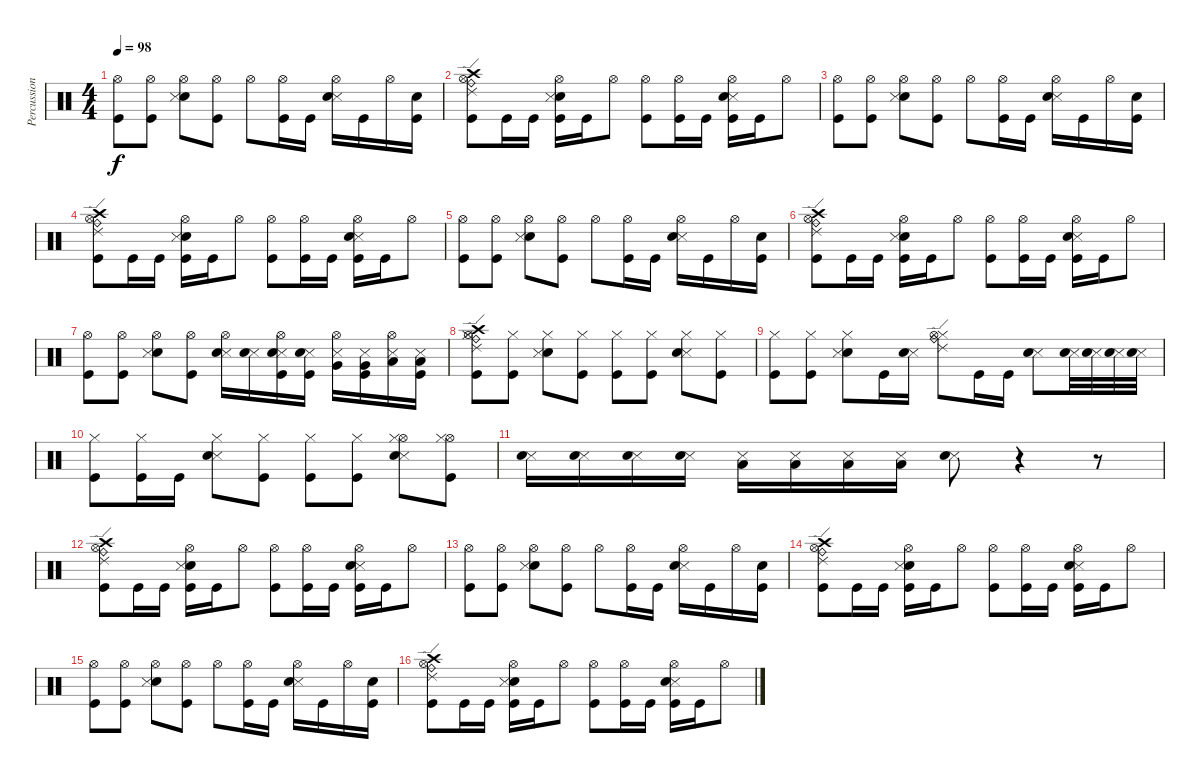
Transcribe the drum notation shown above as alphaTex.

\track ("Percussion" "Percussion") {instrument percussion}
\staff {score}
\articulation defaults
\ts (4 4)
\tempo 98
\clef neutral
\ks c
("Kick (hit)" "Hi-Hat (open)").8{dy f} ("Kick (hit)" "Hi-Hat (open)").8 ("Electric Snare (hit)" "Snare (side stick) 3" "Hi-Hat (open)").8 ("Kick (hit)" "Hi-Hat (open)").8 "Hi-Hat (open)".8 ("Kick (hit)" "Hi-Hat (open)").16 "Kick (hit)".16 ("Snare (side stick) 3" "Electric Snare (hit)" "Hi-Hat (open)").16 "Kick (hit)".16 "Hi-Hat (open)".16 ("Kick (hit)" "Electric Snare (hit)").16 |
("Crash high (hit)" "Ride (edge) 2" "Kick (hit)" "Hi-Hat (open)" "Ride (bell)").8 "Kick (hit)".16 "Kick (hit)".16 ("Electric Snare (hit)" "Snare (side stick) 3" "Kick (hit)" "Hi-Hat (open)").16 "Kick (hit)".16 "Hi-Hat (open)".8 ("Kick (hit)" "Hi-Hat (open)").8 ("Kick (hit)" "Hi-Hat (open)").16 "Kick (hit)".16 ("Snare (side stick) 3" "Electric Snare (hit)" "Kick (hit)" "Hi-Hat (open)").16 "Kick (hit)".16 "Hi-Hat (open)".8 |
("Kick (hit)" "Hi-Hat (open)").8 ("Kick (hit)" "Hi-Hat (open)").8 ("Electric Snare (hit)" "Snare (side stick) 3" "Hi-Hat (open)").8 ("Kick (hit)" "Hi-Hat (open)").8 "Hi-Hat (open)".8 ("Kick (hit)" "Hi-Hat (open)").16 "Kick (hit)".16 ("Snare (side stick) 3" "Electric Snare (hit)" "Hi-Hat (open)").16 "Kick (hit)".16 "Hi-Hat (open)".16 ("Kick (hit)" "Electric Snare (hit)").16 |
("Crash high (hit)" "Ride (edge) 2" "Kick (hit)" "Hi-Hat (open)" "Ride (bell)").8 "Kick (hit)".16 "Kick (hit)".16 ("Electric Snare (hit)" "Snare (side stick) 3" "Kick (hit)" "Hi-Hat (open)").16 "Kick (hit)".16 "Hi-Hat (open)".8 ("Kick (hit)" "Hi-Hat (open)").8 ("Kick (hit)" "Hi-Hat (open)").16 "Kick (hit)".16 ("Snare (side stick) 3" "Electric Snare (hit)" "Kick (hit)" "Hi-Hat (open)").16 "Kick (hit)".16 "Hi-Hat (open)".8 |
("Kick (hit)" "Hi-Hat (open)").8 ("Kick (hit)" "Hi-Hat (open)").8 ("Electric Snare (hit)" "Snare (side stick) 3" "Hi-Hat (open)").8 ("Kick (hit)" "Hi-Hat (open)").8 "Hi-Hat (open)".8 ("Kick (hit)" "Hi-Hat (open)").16 "Kick (hit)".16 ("Snare (side stick) 3" "Electric Snare (hit)" "Hi-Hat (open)").16 "Kick (hit)".16 "Hi-Hat (open)".16 ("Kick (hit)" "Electric Snare (hit)").16 |
("Crash high (hit)" "Ride (edge) 2" "Kick (hit)" "Hi-Hat (open)" "Ride (bell)").8 "Kick (hit)".16 "Kick (hit)".16 ("Electric Snare (hit)" "Snare (side stick) 3" "Kick (hit)" "Hi-Hat (open)").16 "Kick (hit)".16 "Hi-Hat (open)".8 ("Kick (hit)" "Hi-Hat (open)").8 ("Kick (hit)" "Hi-Hat (open)").16 "Kick (hit)".16 ("Snare (side stick) 3" "Electric Snare (hit)" "Kick (hit)" "Hi-Hat (open)").16 "Kick (hit)".16 "Hi-Hat (open)".8 |
("Kick (hit)" "Hi-Hat (open)").8 ("Kick (hit)" "Hi-Hat (open)").8 ("Electric Snare (hit)" "Snare (side stick) 3" "Hi-Hat (open)").8 ("Kick (hit)" "Hi-Hat (open)").8 ("Hi-Hat (open)" "Snare (side stick) 3" "Electric Snare (hit)").16 ("Snare (side stick) 3" "Electric Snare (hit)").16 ("Snare (side stick) 3" "Electric Snare (hit)" "Kick (hit)" "Hi-Hat (open)").16 ("Snare (side stick) 3" "Electric Snare (hit)" "Kick (hit)").16 ("Very Low Tom (hit)" "Snare (side stick) 3" "Hi-Hat (open)").16 ("Very Low Tom (hit)" "Snare (side stick) 3" "Kick (hit)").16 ("Low Floor Tom (hit)" "Snare (side stick) 3" "Hi-Hat (open)").16 ("Low Floor Tom (hit)" "Snare (side stick) 3" "Kick (hit)").16 |
("Kick (hit)" "Hi-Hat (closed)" "Hi-Hat (open)" "Crash high (hit)" "Ride (bell)" "Ride (edge) 2").8 ("Hi-Hat (closed)" "Kick (hit)").8 ("Hi-Hat (closed)" "Electric Snare (hit)" "Snare (side stick) 3").8 ("Hi-Hat (closed)" "Kick (hit)").8 ("Hi-Hat (closed)" "Kick (hit)").8 ("Kick (hit)" "Hi-Hat (closed)").8 ("Hi-Hat (closed)" "Snare (side stick) 3" "Electric Snare (hit)").8 ("Hi-Hat (closed)" "Kick (hit)").8 |
("Hi-Hat (closed)" "Kick (hit)").8 ("Hi-Hat (closed)" "Kick (hit)").8 ("Hi-Hat (closed)" "Electric Snare (hit)" "Snare (side stick) 3").8 "Kick (hit)".16 ("Snare (side stick) 3" "Electric Snare (hit)").16 ("Hi-Hat (closed)" "Hi-Hat (open)" "Ride (bell)" "Ride (edge) 2").8 "Kick (hit)".16 "Kick (hit)".16 ("Snare (side stick) 3" "Electric Snare (hit)").8 ("Snare (side stick) 3" "Electric Snare (hit)").32 ("Snare (side stick) 3" "Electric Snare (hit)").32 ("Snare (side stick) 3" "Electric Snare (hit)").32 ("Snare (side stick) 3" "Electric Snare (hit)").32 |
("Kick (hit)" "Hi-Hat (closed)").8 ("Kick (hit)" "Hi-Hat (closed)").16 "Kick (hit)".16 ("Snare (side stick) 3" "Electric Snare (hit)" "Hi-Hat (closed)").8 ("Kick (hit)" "Hi-Hat (closed)").8 ("Kick (hit)" "Hi-Hat (closed)").8 ("Kick (hit)" "Hi-Hat (closed)").8 ("Hi-Hat (open)" "Snare (side stick) 3" "Electric Snare (hit)" "Hi-Hat (closed)").8 ("Kick (hit)" "Hi-Hat (open)" "Hi-Hat (closed)").8 |
("Snare (side stick) 3" "Electric Snare (hit)").16 ("Snare (side stick) 3" "Electric Snare (hit)").16 ("Snare (side stick) 3" "Electric Snare (hit)").16 ("Snare (side stick) 3" "Electric Snare (hit)").16 ("Snare (side stick) 3" "Low Floor Tom (hit)").16 ("Snare (side stick) 3" "Low Floor Tom (hit)").16 ("Snare (side stick) 3" "Low Floor Tom (hit)").16 ("Snare (side stick) 3" "Low Floor Tom (hit)").16 ("Snare (side stick) 3" "Electric Snare (hit)").8 r.4 r.8 |
("Crash high (hit)" "Ride (edge) 2" "Kick (hit)" "Hi-Hat (open)" "Ride (bell)").8 "Kick (hit)".16 "Kick (hit)".16 ("Electric Snare (hit)" "Snare (side stick) 3" "Kick (hit)" "Hi-Hat (open)").16 "Kick (hit)".16 "Hi-Hat (open)".8 ("Kick (hit)" "Hi-Hat (open)").8 ("Kick (hit)" "Hi-Hat (open)").16 "Kick (hit)".16 ("Snare (side stick) 3" "Electric Snare (hit)" "Kick (hit)" "Hi-Hat (open)").16 "Kick (hit)".16 "Hi-Hat (open)".8 |
("Kick (hit)" "Hi-Hat (open)").8 ("Kick (hit)" "Hi-Hat (open)").8 ("Electric Snare (hit)" "Snare (side stick) 3" "Hi-Hat (open)").8 ("Kick (hit)" "Hi-Hat (open)").8 "Hi-Hat (open)".8 ("Kick (hit)" "Hi-Hat (open)").16 "Kick (hit)".16 ("Snare (side stick) 3" "Electric Snare (hit)" "Hi-Hat (open)").16 "Kick (hit)".16 "Hi-Hat (open)".16 ("Kick (hit)" "Electric Snare (hit)").16 |
("Crash high (hit)" "Ride (edge) 2" "Kick (hit)" "Hi-Hat (open)" "Ride (bell)").8 "Kick (hit)".16 "Kick (hit)".16 ("Electric Snare (hit)" "Snare (side stick) 3" "Kick (hit)" "Hi-Hat (open)").16 "Kick (hit)".16 "Hi-Hat (open)".8 ("Kick (hit)" "Hi-Hat (open)").8 ("Kick (hit)" "Hi-Hat (open)").16 "Kick (hit)".16 ("Snare (side stick) 3" "Electric Snare (hit)" "Kick (hit)" "Hi-Hat (open)").16 "Kick (hit)".16 "Hi-Hat (open)".8 |
("Kick (hit)" "Hi-Hat (open)").8 ("Kick (hit)" "Hi-Hat (open)").8 ("Electric Snare (hit)" "Snare (side stick) 3" "Hi-Hat (open)").8 ("Kick (hit)" "Hi-Hat (open)").8 "Hi-Hat (open)".8 ("Kick (hit)" "Hi-Hat (open)").16 "Kick (hit)".16 ("Snare (side stick) 3" "Electric Snare (hit)" "Hi-Hat (open)").16 "Kick (hit)".16 "Hi-Hat (open)".16 ("Kick (hit)" "Electric Snare (hit)").16 |
("Crash high (hit)" "Ride (edge) 2" "Kick (hit)" "Hi-Hat (open)" "Ride (bell)").8 "Kick (hit)".16 "Kick (hit)".16 ("Electric Snare (hit)" "Snare (side stick) 3" "Kick (hit)" "Hi-Hat (open)").16 "Kick (hit)".16 "Hi-Hat (open)".8 ("Kick (hit)" "Hi-Hat (open)").8 ("Kick (hit)" "Hi-Hat (open)").16 "Kick (hit)".16 ("Snare (side stick) 3" "Electric Snare (hit)" "Kick (hit)" "Hi-Hat (open)").16 "Kick (hit)".16 "Hi-Hat (open)".8
